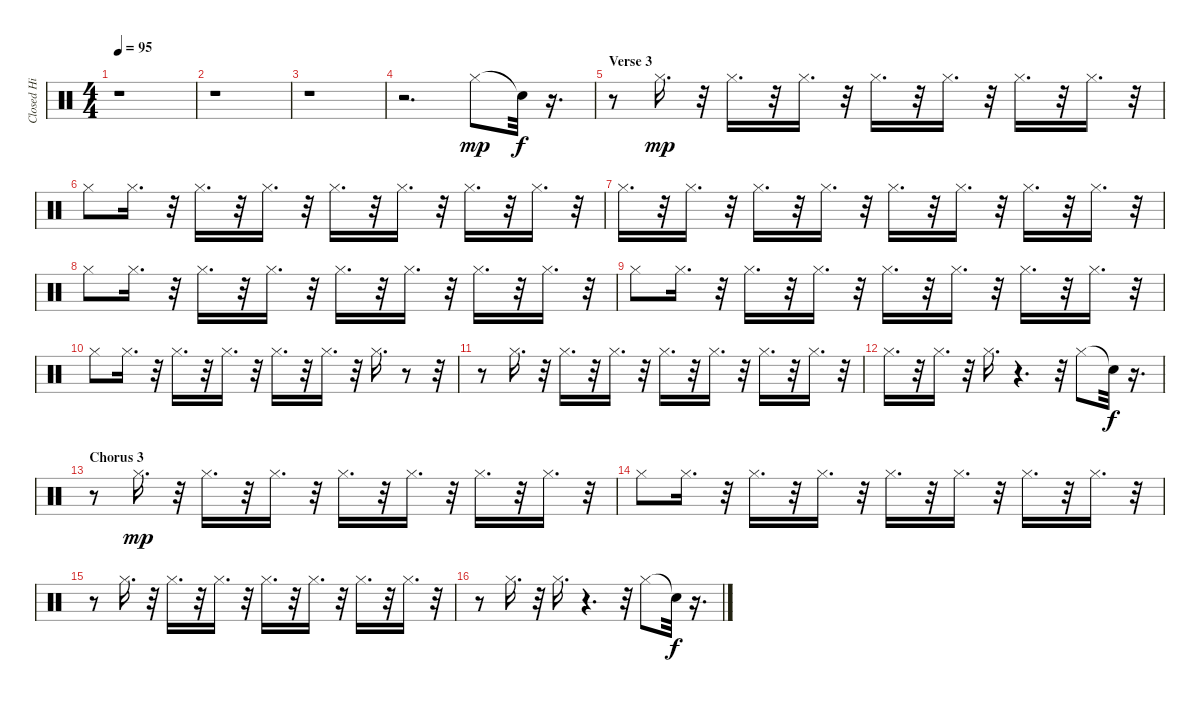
\track ("Closed Hi Hat" "Closed Hi ") {instrument percussion}
\staff {score}
\articulation defaults
\ts (4 4)
\tempo 95
\clef neutral
\ks c
r.1{dy f} |
r.1 |
r.1 |
r.2{d} "Hi-Hat (closed)".8{dy mp} "Snare (hit)"{t}.32{dy f} r.16{d} |
\section ("" "Verse 3")
r.8 "Hi-Hat (closed)".16{d dy mp} r.32 "Hi-Hat (closed)".16{d} r.32 "Hi-Hat (closed)".16{d} r.32 "Hi-Hat (closed)".16{d} r.32 "Hi-Hat (closed)".16{d} r.32 "Hi-Hat (closed)".16{d} r.32 "Hi-Hat (closed)".16{d} r.32 |
"Hi-Hat (closed)".8 "Hi-Hat (closed)".16{d} r.32 "Hi-Hat (closed)".16{d} r.32 "Hi-Hat (closed)".16{d} r.32 "Hi-Hat (closed)".16{d} r.32 "Hi-Hat (closed)".16{d} r.32 "Hi-Hat (closed)".16{d} r.32 "Hi-Hat (closed)".16{d} r.32 |
"Hi-Hat (closed)".16{d} r.32 "Hi-Hat (closed)".16{d} r.32 "Hi-Hat (closed)".16{d} r.32 "Hi-Hat (closed)".16{d} r.32 "Hi-Hat (closed)".16{d} r.32 "Hi-Hat (closed)".16{d} r.32 "Hi-Hat (closed)".16{d} r.32 "Hi-Hat (closed)".16{d} r.32 |
"Hi-Hat (closed)".8 "Hi-Hat (closed)".16{d} r.32 "Hi-Hat (closed)".16{d} r.32 "Hi-Hat (closed)".16{d} r.32 "Hi-Hat (closed)".16{d} r.32 "Hi-Hat (closed)".16{d} r.32 "Hi-Hat (closed)".16{d} r.32 "Hi-Hat (closed)".16{d} r.32 |
"Hi-Hat (closed)".8 "Hi-Hat (closed)".16{d} r.32 "Hi-Hat (closed)".16{d} r.32 "Hi-Hat (closed)".16{d} r.32 "Hi-Hat (closed)".16{d} r.32 "Hi-Hat (closed)".16{d} r.32 "Hi-Hat (closed)".16{d} r.32 "Hi-Hat (closed)".16{d} r.32 |
"Hi-Hat (closed)".8 "Hi-Hat (closed)".16{d} r.32 "Hi-Hat (closed)".16{d} r.32 "Hi-Hat (closed)".16{d} r.32 "Hi-Hat (closed)".16{d} r.32 "Hi-Hat (closed)".16{d} r.32 "Hi-Hat (closed)".16{d} r.8 r.32 |
r.8 "Hi-Hat (closed)".16{d} r.32 "Hi-Hat (closed)".16{d} r.32 "Hi-Hat (closed)".16{d} r.32 "Hi-Hat (closed)".16{d} r.32 "Hi-Hat (closed)".16{d} r.32 "Hi-Hat (closed)".16{d} r.32 "Hi-Hat (closed)".16{d} r.32 |
"Hi-Hat (closed)".16{d} r.32 "Hi-Hat (closed)".16{d} r.32 "Hi-Hat (closed)".16{d} r.4{d} r.32 "Hi-Hat (closed)".8 "Snare (hit)"{t}.32{dy f} r.16{d} |
\section ("" "Chorus 3")
r.8 "Hi-Hat (closed)".16{d dy mp} r.32 "Hi-Hat (closed)".16{d} r.32 "Hi-Hat (closed)".16{d} r.32 "Hi-Hat (closed)".16{d} r.32 "Hi-Hat (closed)".16{d} r.32 "Hi-Hat (closed)".16{d} r.32 "Hi-Hat (closed)".16{d} r.32 |
"Hi-Hat (closed)".8 "Hi-Hat (closed)".16{d} r.32 "Hi-Hat (closed)".16{d} r.32 "Hi-Hat (closed)".16{d} r.32 "Hi-Hat (closed)".16{d} r.32 "Hi-Hat (closed)".16{d} r.32 "Hi-Hat (closed)".16{d} r.32 "Hi-Hat (closed)".16{d} r.32 |
r.8 "Hi-Hat (closed)".16{d} r.32 "Hi-Hat (closed)".16{d} r.32 "Hi-Hat (closed)".16{d} r.32 "Hi-Hat (closed)".16{d} r.32 "Hi-Hat (closed)".16{d} r.32 "Hi-Hat (closed)".16{d} r.32 "Hi-Hat (closed)".16{d} r.32 |
r.8 "Hi-Hat (closed)".16{d} r.32 "Hi-Hat (closed)".16{d} r.4{d} r.32 "Hi-Hat (closed)".8 "Snare (hit)"{t}.32{dy f} r.16{d}
